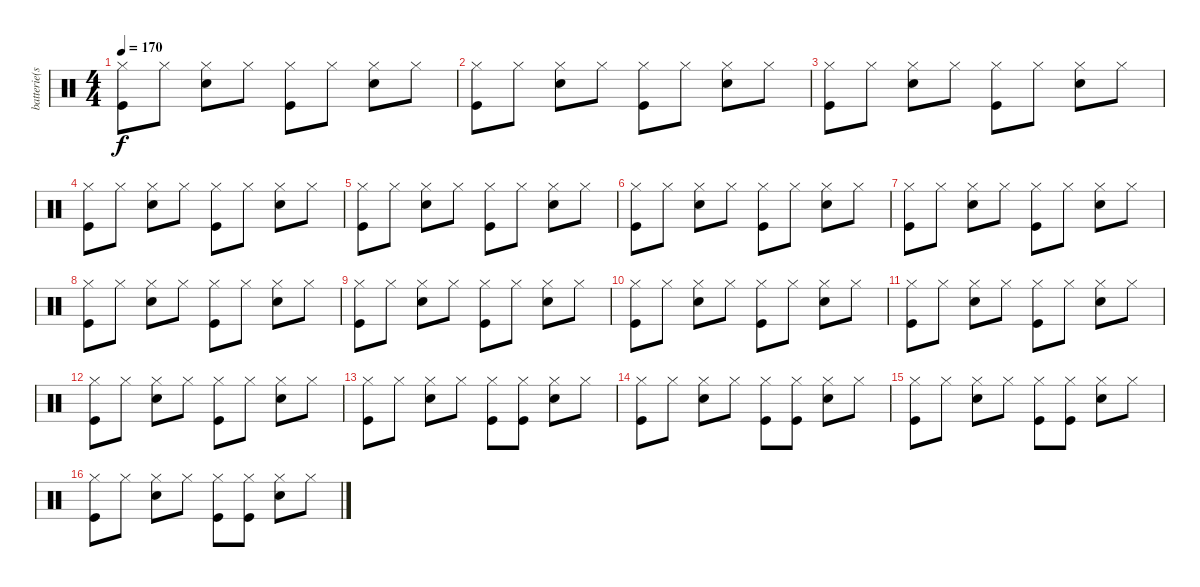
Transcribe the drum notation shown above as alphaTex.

\track ("batterie(steve)" "batterie(s") {instrument percussion}
\staff {score}
\articulation defaults
\ts (4 4)
\tempo 170
\clef neutral
\ks c
("Hi-Hat (closed)" "Kick (hit)").8{dy f} "Hi-Hat (closed)".8 ("Hi-Hat (closed)" "Snare (hit) 2").8 "Hi-Hat (closed)".8 ("Hi-Hat (closed)" "Kick (hit)").8 "Hi-Hat (closed)".8 ("Hi-Hat (closed)" "Snare (hit) 2").8 "Hi-Hat (closed)".8 |
("Hi-Hat (closed)" "Kick (hit)").8 "Hi-Hat (closed)".8 ("Hi-Hat (closed)" "Snare (hit) 2").8 "Hi-Hat (closed)".8 ("Hi-Hat (closed)" "Kick (hit)").8 "Hi-Hat (closed)".8 ("Hi-Hat (closed)" "Snare (hit) 2").8 "Hi-Hat (closed)".8 |
("Hi-Hat (closed)" "Kick (hit)").8 "Hi-Hat (closed)".8 ("Hi-Hat (closed)" "Snare (hit) 2").8 "Hi-Hat (closed)".8 ("Hi-Hat (closed)" "Kick (hit)").8 "Hi-Hat (closed)".8 ("Hi-Hat (closed)" "Snare (hit) 2").8 "Hi-Hat (closed)".8 |
("Hi-Hat (closed)" "Kick (hit)").8 "Hi-Hat (closed)".8 ("Hi-Hat (closed)" "Snare (hit) 2").8 "Hi-Hat (closed)".8 ("Hi-Hat (closed)" "Kick (hit)").8 "Hi-Hat (closed)".8 ("Hi-Hat (closed)" "Snare (hit) 2").8 "Hi-Hat (closed)".8 |
("Hi-Hat (closed)" "Kick (hit)").8 "Hi-Hat (closed)".8 ("Hi-Hat (closed)" "Snare (hit) 2").8 "Hi-Hat (closed)".8 ("Hi-Hat (closed)" "Kick (hit)").8 "Hi-Hat (closed)".8 ("Hi-Hat (closed)" "Snare (hit) 2").8 "Hi-Hat (closed)".8 |
("Hi-Hat (closed)" "Kick (hit)").8 "Hi-Hat (closed)".8 ("Hi-Hat (closed)" "Snare (hit) 2").8 "Hi-Hat (closed)".8 ("Hi-Hat (closed)" "Kick (hit)").8 "Hi-Hat (closed)".8 ("Hi-Hat (closed)" "Snare (hit) 2").8 "Hi-Hat (closed)".8 |
("Hi-Hat (closed)" "Kick (hit)").8 "Hi-Hat (closed)".8 ("Hi-Hat (closed)" "Snare (hit) 2").8 "Hi-Hat (closed)".8 ("Hi-Hat (closed)" "Kick (hit)").8 "Hi-Hat (closed)".8 ("Hi-Hat (closed)" "Snare (hit) 2").8 "Hi-Hat (closed)".8 |
("Hi-Hat (closed)" "Kick (hit)").8 "Hi-Hat (closed)".8 ("Hi-Hat (closed)" "Snare (hit) 2").8 "Hi-Hat (closed)".8 ("Hi-Hat (closed)" "Kick (hit)").8 "Hi-Hat (closed)".8 ("Hi-Hat (closed)" "Snare (hit) 2").8 "Hi-Hat (closed)".8 |
("Hi-Hat (closed)" "Kick (hit)").8 "Hi-Hat (closed)".8 ("Hi-Hat (closed)" "Snare (hit) 2").8 "Hi-Hat (closed)".8 ("Hi-Hat (closed)" "Kick (hit)").8 "Hi-Hat (closed)".8 ("Hi-Hat (closed)" "Snare (hit) 2").8 "Hi-Hat (closed)".8 |
("Hi-Hat (closed)" "Kick (hit)").8 "Hi-Hat (closed)".8 ("Hi-Hat (closed)" "Snare (hit) 2").8 "Hi-Hat (closed)".8 ("Hi-Hat (closed)" "Kick (hit)").8 "Hi-Hat (closed)".8 ("Hi-Hat (closed)" "Snare (hit) 2").8 "Hi-Hat (closed)".8 |
("Hi-Hat (closed)" "Kick (hit)").8 "Hi-Hat (closed)".8 ("Hi-Hat (closed)" "Snare (hit) 2").8 "Hi-Hat (closed)".8 ("Hi-Hat (closed)" "Kick (hit)").8 "Hi-Hat (closed)".8 ("Hi-Hat (closed)" "Snare (hit) 2").8 "Hi-Hat (closed)".8 |
("Hi-Hat (closed)" "Kick (hit)").8 "Hi-Hat (closed)".8 ("Hi-Hat (closed)" "Snare (hit) 2").8 "Hi-Hat (closed)".8 ("Hi-Hat (closed)" "Kick (hit)").8 "Hi-Hat (closed)".8 ("Hi-Hat (closed)" "Snare (hit) 2").8 "Hi-Hat (closed)".8 |
("Hi-Hat (closed)" "Kick (hit)").8 "Hi-Hat (closed)".8 ("Hi-Hat (closed)" "Snare (hit) 2").8 "Hi-Hat (closed)".8 ("Hi-Hat (closed)" "Kick (hit)").8 ("Hi-Hat (closed)" "Kick (hit)").8 ("Hi-Hat (closed)" "Snare (hit) 2").8 "Hi-Hat (closed)".8 |
("Hi-Hat (closed)" "Kick (hit)").8 "Hi-Hat (closed)".8 ("Hi-Hat (closed)" "Snare (hit) 2").8 "Hi-Hat (closed)".8 ("Hi-Hat (closed)" "Kick (hit)").8 ("Hi-Hat (closed)" "Kick (hit)").8 ("Hi-Hat (closed)" "Snare (hit) 2").8 "Hi-Hat (closed)".8 |
("Hi-Hat (closed)" "Kick (hit)").8 "Hi-Hat (closed)".8 ("Hi-Hat (closed)" "Snare (hit) 2").8 "Hi-Hat (closed)".8 ("Hi-Hat (closed)" "Kick (hit)").8 ("Hi-Hat (closed)" "Kick (hit)").8 ("Hi-Hat (closed)" "Snare (hit) 2").8 "Hi-Hat (closed)".8 |
("Hi-Hat (closed)" "Kick (hit)").8 "Hi-Hat (closed)".8 ("Hi-Hat (closed)" "Snare (hit) 2").8 "Hi-Hat (closed)".8 ("Hi-Hat (closed)" "Kick (hit)").8 ("Hi-Hat (closed)" "Kick (hit)").8 ("Hi-Hat (closed)" "Snare (hit) 2").8 "Hi-Hat (closed)".8
